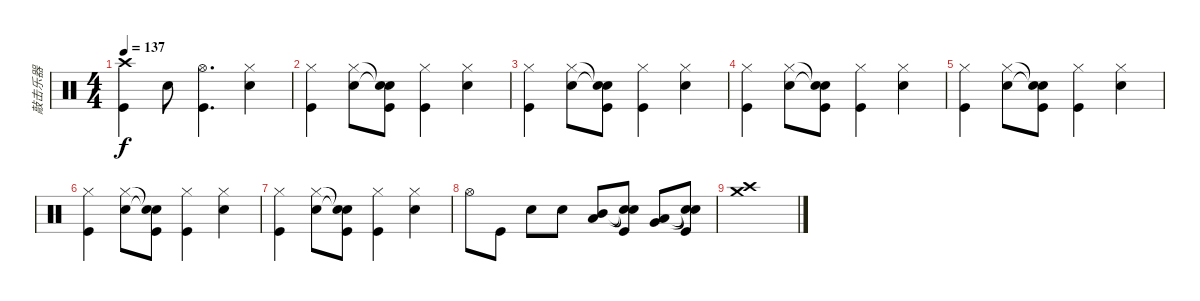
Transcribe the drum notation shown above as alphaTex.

\track ("敲击乐器" "敲击乐器") {instrument percussion}
\staff {score}
\articulation defaults
\ts (4 4)
\tempo 137
\clef neutral
\ks c
("Crash high (hit)" "Kick (hit)").4{dy f} "Snare (hit) 2".8 ("Hi-Hat (open)" "Kick (hit)").4{d} ("Hi-Hat (closed)" "Snare (hit) 2").4 |
("Hi-Hat (closed)" "Kick (hit)").4 ("Hi-Hat (closed)" "Snare (hit) 2").8 ("Snare (hit)"{t} "Snare (hit)"{t} "Kick (hit)").8 ("Hi-Hat (closed)" "Kick (hit)").4 ("Hi-Hat (closed)" "Snare (hit) 2").4 |
("Hi-Hat (closed)" "Kick (hit)").4 ("Hi-Hat (closed)" "Snare (hit) 2").8 ("Snare (hit)"{t} "Snare (hit)"{t} "Kick (hit)").8 ("Hi-Hat (closed)" "Kick (hit)").4 ("Hi-Hat (closed)" "Snare (hit) 2").4 |
("Hi-Hat (closed)" "Kick (hit)").4 ("Hi-Hat (closed)" "Snare (hit) 2").8 ("Snare (hit)"{t} "Snare (hit)"{t} "Kick (hit)").8 ("Hi-Hat (closed)" "Kick (hit)").4 ("Hi-Hat (closed)" "Snare (hit) 2").4 |
("Hi-Hat (closed)" "Kick (hit)").4 ("Hi-Hat (closed)" "Snare (hit) 2").8 ("Snare (hit)"{t} "Snare (hit)"{t} "Kick (hit)").8 ("Hi-Hat (closed)" "Kick (hit)").4 ("Hi-Hat (closed)" "Snare (hit) 2").4 |
("Hi-Hat (closed)" "Kick (hit)").4 ("Hi-Hat (closed)" "Snare (hit) 2").8 ("Snare (hit)"{t} "Snare (hit)"{t} "Kick (hit)").8 ("Hi-Hat (closed)" "Kick (hit)").4 ("Hi-Hat (closed)" "Snare (hit) 2").4 |
("Hi-Hat (closed)" "Kick (hit)").4 ("Hi-Hat (closed)" "Snare (hit) 2").8 ("Snare (hit)"{t} "Snare (hit)"{t} "Kick (hit)").8 ("Hi-Hat (closed)" "Kick (hit)").4 ("Hi-Hat (closed)" "Snare (hit) 2").4 |
"Hi-Hat (open)".8 "Kick (hit)".8 "Snare (hit) 2".8 "Snare (hit) 2".8 ("Mid Tom (hit)" "Low Tom (hit)").8 ("Snare (hit)"{t} "Snare (hit)"{t} "Kick (hit)").8 ("Low Tom (hit)" "Very Low Tom (hit)").8 ("Snare (hit)"{t} "Snare (hit)"{t} "Kick (hit)").8 |
("Crash medium (hit)" "Crash high (hit)").1
